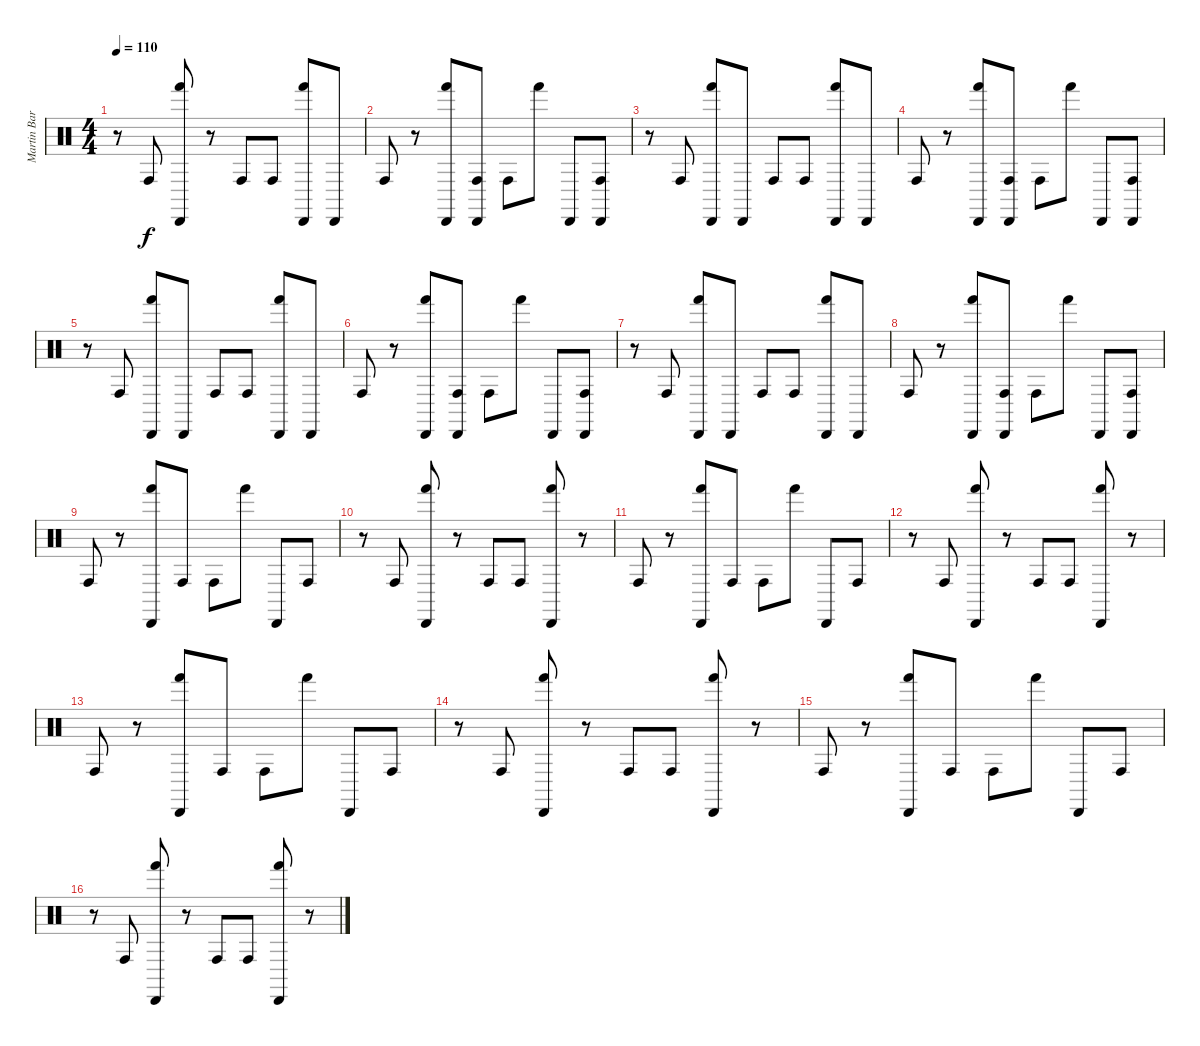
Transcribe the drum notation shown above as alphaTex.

\track ("Martin Barret" "Martin Bar") {instrument percussion}
\staff {score}
\articulation defaults
\ts (4 4)
\tempo 110
\clef neutral
\ks c
r.8{dy f} "Conga high (hit)".8 ("Cabasa (hit)" "Hand (hit)").8 r.8 "Conga high (hit)".8 "Conga high (hit)".8 ("Cabasa (hit)" "Hand (hit)").8 "Cabasa (hit)".8 |
"Conga high (hit)".8 r.8 ("Cabasa (hit)" "Hand (hit)").8 ("Cabasa (hit)" "Conga high (hit)").8 "Conga high (hit)".8 "Hand (hit)".8 "Cabasa (hit)".8 ("Cabasa (hit)" "Conga high (hit)").8 |
r.8 "Conga high (hit)".8 ("Cabasa (hit)" "Hand (hit)").8 "Cabasa (hit)".8 "Conga high (hit)".8 "Conga high (hit)".8 ("Cabasa (hit)" "Hand (hit)").8 "Cabasa (hit)".8 |
"Conga high (hit)".8 r.8 ("Cabasa (hit)" "Hand (hit)").8 ("Cabasa (hit)" "Conga high (hit)").8 "Conga high (hit)".8 "Hand (hit)".8 "Cabasa (hit)".8 ("Cabasa (hit)" "Conga high (hit)").8 |
r.8 "Conga high (hit)".8 ("Cabasa (hit)" "Hand (hit)").8 "Cabasa (hit)".8 "Conga high (hit)".8 "Conga high (hit)".8 ("Cabasa (hit)" "Hand (hit)").8 "Cabasa (hit)".8 |
"Conga high (hit)".8 r.8 ("Cabasa (hit)" "Hand (hit)").8 ("Cabasa (hit)" "Conga high (hit)").8 "Conga high (hit)".8 "Hand (hit)".8 "Cabasa (hit)".8 ("Cabasa (hit)" "Conga high (hit)").8 |
r.8 "Conga high (hit)".8 ("Cabasa (hit)" "Hand (hit)").8 "Cabasa (hit)".8 "Conga high (hit)".8 "Conga high (hit)".8 ("Cabasa (hit)" "Hand (hit)").8 "Cabasa (hit)".8 |
"Conga high (hit)".8 r.8 ("Cabasa (hit)" "Hand (hit)").8 ("Cabasa (hit)" "Conga high (hit)").8 "Conga high (hit)".8 "Hand (hit)".8 "Cabasa (hit)".8 ("Cabasa (hit)" "Conga high (hit)").8 |
"Conga high (hit)".8 r.8 ("Cabasa (hit)" "Hand (hit)").8 "Conga high (hit)".8 "Conga high (hit)".8 "Hand (hit)".8 "Cabasa (hit)".8 "Conga high (hit)".8 |
r.8 "Conga high (hit)".8 ("Cabasa (hit)" "Hand (hit)").8 r.8 "Conga high (hit)".8 "Conga high (hit)".8 ("Cabasa (hit)" "Hand (hit)").8 r.8 |
"Conga high (hit)".8 r.8 ("Cabasa (hit)" "Hand (hit)").8 "Conga high (hit)".8 "Conga high (hit)".8 "Hand (hit)".8 "Cabasa (hit)".8 "Conga high (hit)".8 |
r.8 "Conga high (hit)".8 ("Cabasa (hit)" "Hand (hit)").8 r.8 "Conga high (hit)".8 "Conga high (hit)".8 ("Cabasa (hit)" "Hand (hit)").8 r.8 |
"Conga high (hit)".8 r.8 ("Cabasa (hit)" "Hand (hit)").8 "Conga high (hit)".8 "Conga high (hit)".8 "Hand (hit)".8 "Cabasa (hit)".8 "Conga high (hit)".8 |
r.8 "Conga high (hit)".8 ("Cabasa (hit)" "Hand (hit)").8 r.8 "Conga high (hit)".8 "Conga high (hit)".8 ("Cabasa (hit)" "Hand (hit)").8 r.8 |
"Conga high (hit)".8 r.8 ("Cabasa (hit)" "Hand (hit)").8 "Conga high (hit)".8 "Conga high (hit)".8 "Hand (hit)".8 "Cabasa (hit)".8 "Conga high (hit)".8 |
r.8 "Conga high (hit)".8 ("Cabasa (hit)" "Hand (hit)").8 r.8 "Conga high (hit)".8 "Conga high (hit)".8 ("Cabasa (hit)" "Hand (hit)").8 r.8
